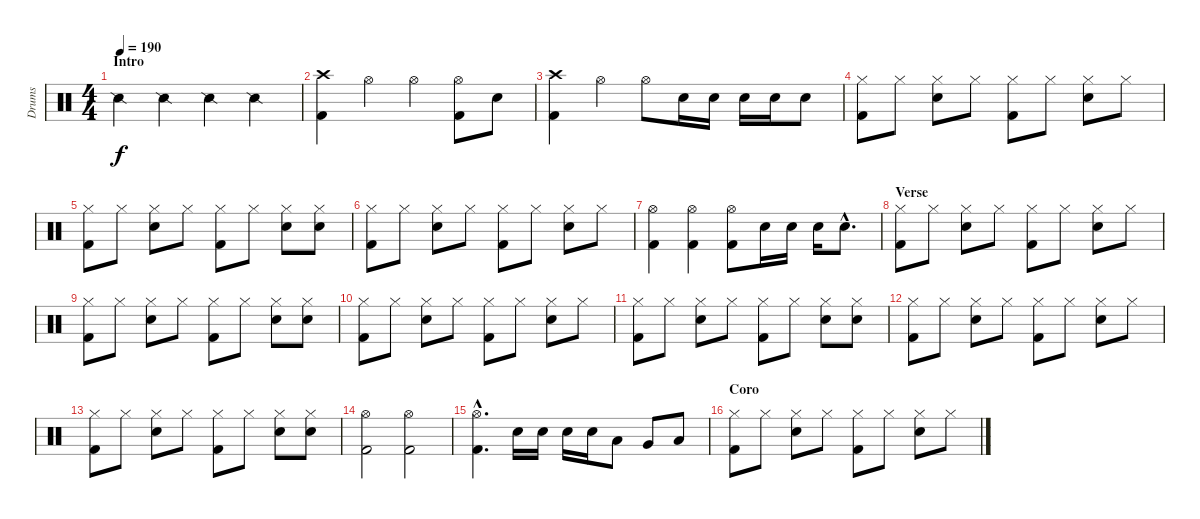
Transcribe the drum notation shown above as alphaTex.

\track ("Drums" "Drums") {instrument percussion}
\staff {score}
\articulation defaults
\ts (4 4)
\section ("" "Intro")
\tempo 190
\clef neutral
\ks c "Snare (side stick) 2".4{dy f} "Snare (side stick) 2".4 "Snare (side stick) 2".4 "Snare (side stick) 2".4
|
("Crash high (hit)" "Kick (hit) 2").4 "Hi-Hat (open)".4 "Hi-Hat (open)".4 ("Hi-Hat (open)" "Kick (hit) 2").8 "Snare (hit) 2".8 |
("Crash high (hit)" "Kick (hit) 2").4 "Hi-Hat (open)".4 "Hi-Hat (open)".8 "Snare (hit) 2".16 "Snare (hit) 2".16 "Snare (hit) 2".16 "Snare (hit) 2".16 "Snare (hit) 2".8 |
("Kick (hit) 2" "Hi-Hat (closed)").8 "Hi-Hat (closed)".8 ("Snare (hit) 2" "Hi-Hat (closed)").8 "Hi-Hat (closed)".8 ("Kick (hit) 2" "Hi-Hat (closed)").8 "Hi-Hat (closed)".8 ("Snare (hit) 2" "Hi-Hat (closed)").8 "Hi-Hat (closed)".8 |
("Kick (hit) 2" "Hi-Hat (closed)").8 "Hi-Hat (closed)".8 ("Snare (hit) 2" "Hi-Hat (closed)").8 "Hi-Hat (closed)".8 ("Kick (hit) 2" "Hi-Hat (closed)").8 "Hi-Hat (closed)".8 ("Snare (hit) 2" "Hi-Hat (closed)").8 ("Snare (hit) 2" "Hi-Hat (closed)").8 |
("Kick (hit) 2" "Hi-Hat (closed)").8 "Hi-Hat (closed)".8 ("Snare (hit) 2" "Hi-Hat (closed)").8 "Hi-Hat (closed)".8 ("Kick (hit) 2" "Hi-Hat (closed)").8 "Hi-Hat (closed)".8 ("Snare (hit) 2" "Hi-Hat (closed)").8 "Hi-Hat (closed)".8 |
("Kick (hit) 2" "Hi-Hat (open)").4 ("Kick (hit) 2" "Hi-Hat (open)").4 ("Kick (hit) 2" "Hi-Hat (open)").8 "Snare (hit) 2".16 "Snare (hit) 2".16 "Snare (hit) 2".16 "Snare (hit) 2"{hac}.8{d} |
\section ("" "Verse")
("Kick (hit) 2" "Hi-Hat (closed)").8 "Hi-Hat (closed)".8 ("Snare (hit) 2" "Hi-Hat (closed)").8 "Hi-Hat (closed)".8 ("Kick (hit) 2" "Hi-Hat (closed)").8 "Hi-Hat (closed)".8 ("Snare (hit) 2" "Hi-Hat (closed)").8 "Hi-Hat (closed)".8 |
("Kick (hit) 2" "Hi-Hat (closed)").8 "Hi-Hat (closed)".8 ("Snare (hit) 2" "Hi-Hat (closed)").8 "Hi-Hat (closed)".8 ("Kick (hit) 2" "Hi-Hat (closed)").8 "Hi-Hat (closed)".8 ("Snare (hit) 2" "Hi-Hat (closed)").8 ("Snare (hit) 2" "Hi-Hat (closed)").8 |
("Kick (hit) 2" "Hi-Hat (closed)").8 "Hi-Hat (closed)".8 ("Snare (hit) 2" "Hi-Hat (closed)").8 "Hi-Hat (closed)".8 ("Kick (hit) 2" "Hi-Hat (closed)").8 "Hi-Hat (closed)".8 ("Snare (hit) 2" "Hi-Hat (closed)").8 "Hi-Hat (closed)".8 |
("Kick (hit) 2" "Hi-Hat (closed)").8 "Hi-Hat (closed)".8 ("Snare (hit) 2" "Hi-Hat (closed)").8 "Hi-Hat (closed)".8 ("Kick (hit) 2" "Hi-Hat (closed)").8 "Hi-Hat (closed)".8 ("Snare (hit) 2" "Hi-Hat (closed)").8 ("Snare (hit) 2" "Hi-Hat (closed)").8 |
("Kick (hit) 2" "Hi-Hat (closed)").8 "Hi-Hat (closed)".8 ("Snare (hit) 2" "Hi-Hat (closed)").8 "Hi-Hat (closed)".8 ("Kick (hit) 2" "Hi-Hat (closed)").8 "Hi-Hat (closed)".8 ("Snare (hit) 2" "Hi-Hat (closed)").8 "Hi-Hat (closed)".8 |
("Kick (hit) 2" "Hi-Hat (closed)").8 "Hi-Hat (closed)".8 ("Snare (hit) 2" "Hi-Hat (closed)").8 "Hi-Hat (closed)".8 ("Kick (hit) 2" "Hi-Hat (closed)").8 "Hi-Hat (closed)".8 ("Snare (hit) 2" "Hi-Hat (closed)").8 ("Snare (hit) 2" "Hi-Hat (closed)").8 |
("Hi-Hat (open)" "Kick (hit) 2").2 ("Kick (hit) 2" "Hi-Hat (open)").2 |
("Hi-Hat (open)"{hac} "Kick (hit) 2"{hac}).4{d} "Snare (hit) 2".16 "Snare (hit) 2".16 "Snare (hit) 2".16 "Snare (hit) 2".16 "Low Tom (hit)".8 "Very Low Tom (hit)".8 "Low Floor Tom (hit)".8 |
\section ("" "Coro")
("Kick (hit) 2" "Hi-Hat (closed)").8 "Hi-Hat (closed)".8 ("Snare (hit) 2" "Hi-Hat (closed)").8 "Hi-Hat (closed)".8 ("Kick (hit) 2" "Hi-Hat (closed)").8 "Hi-Hat (closed)".8 ("Snare (hit) 2" "Hi-Hat (closed)").8 "Hi-Hat (closed)".8
